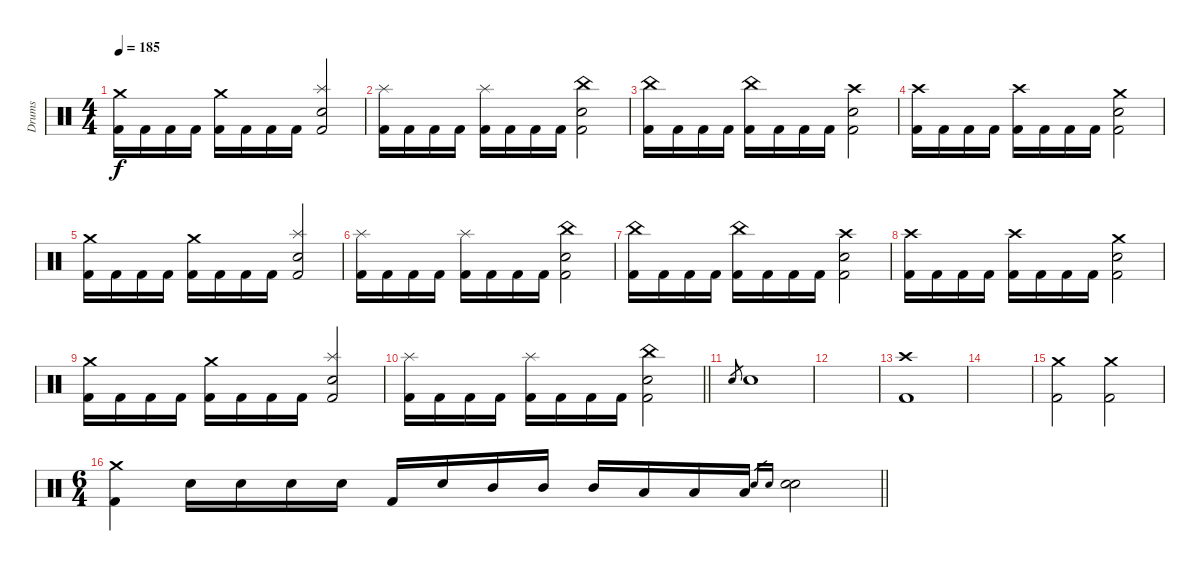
\track ("Drums" "Drums") {instrument percussion}
\staff {score}
\articulation defaults
\ts (4 4)
\tempo 185
\clef neutral
\ks c
("Crash medium (hit)" "Kick (hit) 2").16{dy f} "Kick (hit) 2".16 "Kick (hit) 2".16 "Kick (hit) 2".16 ("Crash medium (hit)" "Kick (hit) 2").16 "Kick (hit) 2".16 "Kick (hit) 2".16 "Kick (hit) 2".16 ("Splash (hit)" "Electric Snare (hit)" "Kick (hit) 2").2 |
("Splash (hit)" "Kick (hit) 2").16 "Kick (hit) 2".16 "Kick (hit) 2".16 "Kick (hit) 2".16 ("Splash (hit)" "Kick (hit) 2").16 "Kick (hit) 2".16 "Kick (hit) 2".16 "Kick (hit) 2".16 ("China (hit)" "Electric Snare (hit)" "Kick (hit) 2").2 |
("China (hit)" "Kick (hit) 2").16 "Kick (hit) 2".16 "Kick (hit) 2".16 "Kick (hit) 2".16 ("China (hit)" "Kick (hit) 2").16 "Kick (hit) 2".16 "Kick (hit) 2".16 "Kick (hit) 2".16 ("Crash high (hit)" "Electric Snare (hit)" "Kick (hit) 2").2 |
("Crash high (hit)" "Kick (hit) 2").16 "Kick (hit) 2".16 "Kick (hit) 2".16 "Kick (hit) 2".16 ("Crash high (hit)" "Kick (hit) 2").16 "Kick (hit) 2".16 "Kick (hit) 2".16 "Kick (hit) 2".16 ("Crash medium (hit)" "Electric Snare (hit)" "Kick (hit) 2").2 |
("Crash medium (hit)" "Kick (hit) 2").16 "Kick (hit) 2".16 "Kick (hit) 2".16 "Kick (hit) 2".16 ("Crash medium (hit)" "Kick (hit) 2").16 "Kick (hit) 2".16 "Kick (hit) 2".16 "Kick (hit) 2".16 ("Splash (hit)" "Electric Snare (hit)" "Kick (hit) 2").2 |
("Splash (hit)" "Kick (hit) 2").16 "Kick (hit) 2".16 "Kick (hit) 2".16 "Kick (hit) 2".16 ("Splash (hit)" "Kick (hit) 2").16 "Kick (hit) 2".16 "Kick (hit) 2".16 "Kick (hit) 2".16 ("China (hit)" "Electric Snare (hit)" "Kick (hit) 2").2 |
("China (hit)" "Kick (hit) 2").16 "Kick (hit) 2".16 "Kick (hit) 2".16 "Kick (hit) 2".16 ("China (hit)" "Kick (hit) 2").16 "Kick (hit) 2".16 "Kick (hit) 2".16 "Kick (hit) 2".16 ("Crash high (hit)" "Electric Snare (hit)" "Kick (hit) 2").2 |
("Crash high (hit)" "Kick (hit) 2").16 "Kick (hit) 2".16 "Kick (hit) 2".16 "Kick (hit) 2".16 ("Crash high (hit)" "Kick (hit) 2").16 "Kick (hit) 2".16 "Kick (hit) 2".16 "Kick (hit) 2".16 ("Crash medium (hit)" "Electric Snare (hit)" "Kick (hit) 2").2 |
("Crash medium (hit)" "Kick (hit) 2").16 "Kick (hit) 2".16 "Kick (hit) 2".16 "Kick (hit) 2".16 ("Crash medium (hit)" "Kick (hit) 2").16 "Kick (hit) 2".16 "Kick (hit) 2".16 "Kick (hit) 2".16 ("Splash (hit)" "Electric Snare (hit)" "Kick (hit) 2").2 |
\barLineRight lightlight
("Splash (hit)" "Kick (hit) 2").16 "Kick (hit) 2".16 "Kick (hit) 2".16 "Kick (hit) 2".16 ("Splash (hit)" "Kick (hit) 2").16 "Kick (hit) 2".16 "Kick (hit) 2".16 "Kick (hit) 2".16 ("China (hit)" "Electric Snare (hit)" "Kick (hit) 2").2 |
\section ("" "")
"Electric Snare (hit)".8{gr} "Electric Snare (hit)".1 |
|
("Crash high (hit)" "Kick (hit) 2").1 |
|
("Crash medium (hit)" "Kick (hit) 2").2 ("Crash medium (hit)" "Kick (hit) 2").2 |
\ts (6 4)
\barLineRight lightlight
("Crash medium (hit)" "Kick (hit) 2").4 "Electric Snare (hit)".16 "Electric Snare (hit)".16 "Electric Snare (hit)".16 "Electric Snare (hit)".16 "Kick (hit) 2".16 "Electric Snare (hit)".16 "Mid Tom (hit)".16 "Mid Tom (hit)".16 "Mid Tom (hit)".16 "Low Tom (hit)".16 "Low Tom (hit)".16 "Low Tom (hit)".16 "Snare (hit) 2".16{gr} "Electric Snare (hit)".16{gr} ("Snare (hit) 2" "Electric Snare (hit)").2
